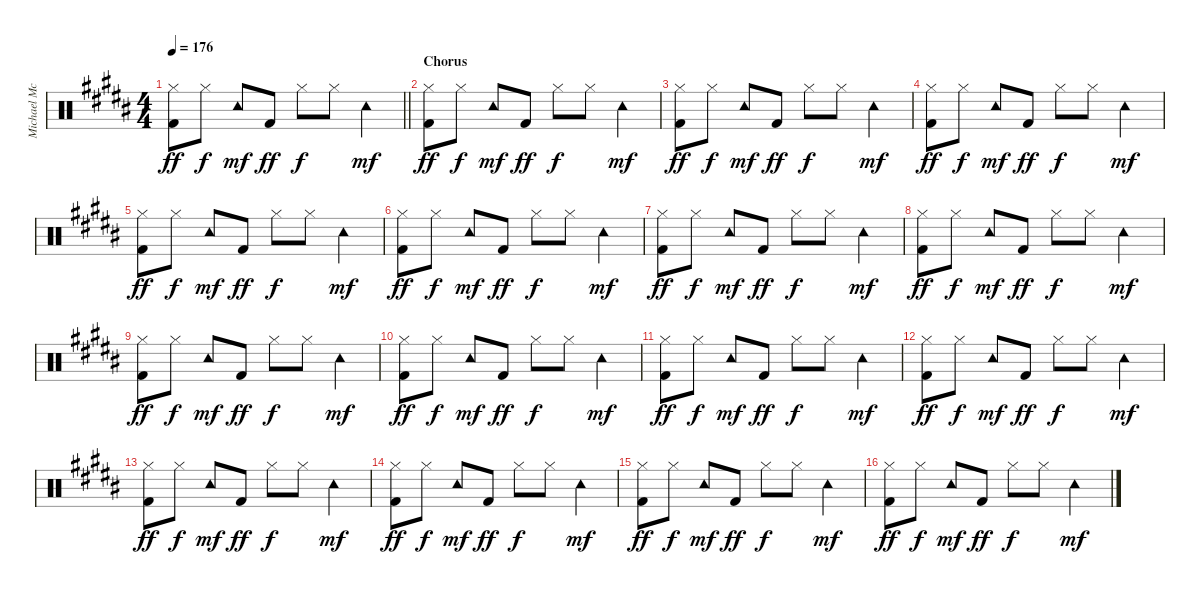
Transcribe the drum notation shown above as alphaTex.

\track ("Michael McDermott - Drums" "Michael Mc") {instrument percussion}
\staff {score}
\articulation defaults
\ts (4 4)
\tempo 176
\clef neutral
\barLineRight lightlight
\ks b
("Kick (hit) 2" "Hi-Hat (closed)").8{dy ff} "Hi-Hat (closed)".8{dy f} "Tambourine (hit)".8{dy mf} "Kick (hit) 2".8{dy ff} "Hi-Hat (closed)".8{dy f} "Hi-Hat (closed)".8 "Tambourine (hit)".4{dy mf} |
\section ("" "Chorus")
("Kick (hit) 2" "Hi-Hat (closed)").8{dy ff} "Hi-Hat (closed)".8{dy f} "Tambourine (hit)".8{dy mf} "Kick (hit) 2".8{dy ff} "Hi-Hat (closed)".8{dy f} "Hi-Hat (closed)".8 "Tambourine (hit)".4{dy mf} |
("Kick (hit) 2" "Hi-Hat (closed)").8{dy ff} "Hi-Hat (closed)".8{dy f} "Tambourine (hit)".8{dy mf} "Kick (hit) 2".8{dy ff} "Hi-Hat (closed)".8{dy f} "Hi-Hat (closed)".8 "Tambourine (hit)".4{dy mf} |
("Kick (hit) 2" "Hi-Hat (closed)").8{dy ff} "Hi-Hat (closed)".8{dy f} "Tambourine (hit)".8{dy mf} "Kick (hit) 2".8{dy ff} "Hi-Hat (closed)".8{dy f} "Hi-Hat (closed)".8 "Tambourine (hit)".4{dy mf} |
("Kick (hit) 2" "Hi-Hat (closed)").8{dy ff} "Hi-Hat (closed)".8{dy f} "Tambourine (hit)".8{dy mf} "Kick (hit) 2".8{dy ff} "Hi-Hat (closed)".8{dy f} "Hi-Hat (closed)".8 "Tambourine (hit)".4{dy mf} |
("Kick (hit) 2" "Hi-Hat (closed)").8{dy ff} "Hi-Hat (closed)".8{dy f} "Tambourine (hit)".8{dy mf} "Kick (hit) 2".8{dy ff} "Hi-Hat (closed)".8{dy f} "Hi-Hat (closed)".8 "Tambourine (hit)".4{dy mf} |
("Kick (hit) 2" "Hi-Hat (closed)").8{dy ff} "Hi-Hat (closed)".8{dy f} "Tambourine (hit)".8{dy mf} "Kick (hit) 2".8{dy ff} "Hi-Hat (closed)".8{dy f} "Hi-Hat (closed)".8 "Tambourine (hit)".4{dy mf} |
("Kick (hit) 2" "Hi-Hat (closed)").8{dy ff} "Hi-Hat (closed)".8{dy f} "Tambourine (hit)".8{dy mf} "Kick (hit) 2".8{dy ff} "Hi-Hat (closed)".8{dy f} "Hi-Hat (closed)".8 "Tambourine (hit)".4{dy mf} |
("Kick (hit) 2" "Hi-Hat (closed)").8{dy ff} "Hi-Hat (closed)".8{dy f} "Tambourine (hit)".8{dy mf} "Kick (hit) 2".8{dy ff} "Hi-Hat (closed)".8{dy f} "Hi-Hat (closed)".8 "Tambourine (hit)".4{dy mf} |
("Kick (hit) 2" "Hi-Hat (closed)").8{dy ff} "Hi-Hat (closed)".8{dy f} "Tambourine (hit)".8{dy mf} "Kick (hit) 2".8{dy ff} "Hi-Hat (closed)".8{dy f} "Hi-Hat (closed)".8 "Tambourine (hit)".4{dy mf} |
("Kick (hit) 2" "Hi-Hat (closed)").8{dy ff} "Hi-Hat (closed)".8{dy f} "Tambourine (hit)".8{dy mf} "Kick (hit) 2".8{dy ff} "Hi-Hat (closed)".8{dy f} "Hi-Hat (closed)".8 "Tambourine (hit)".4{dy mf} |
("Kick (hit) 2" "Hi-Hat (closed)").8{dy ff} "Hi-Hat (closed)".8{dy f} "Tambourine (hit)".8{dy mf} "Kick (hit) 2".8{dy ff} "Hi-Hat (closed)".8{dy f} "Hi-Hat (closed)".8 "Tambourine (hit)".4{dy mf} |
("Kick (hit) 2" "Hi-Hat (closed)").8{dy ff} "Hi-Hat (closed)".8{dy f} "Tambourine (hit)".8{dy mf} "Kick (hit) 2".8{dy ff} "Hi-Hat (closed)".8{dy f} "Hi-Hat (closed)".8 "Tambourine (hit)".4{dy mf} |
("Kick (hit) 2" "Hi-Hat (closed)").8{dy ff} "Hi-Hat (closed)".8{dy f} "Tambourine (hit)".8{dy mf} "Kick (hit) 2".8{dy ff} "Hi-Hat (closed)".8{dy f} "Hi-Hat (closed)".8 "Tambourine (hit)".4{dy mf} |
("Kick (hit) 2" "Hi-Hat (closed)").8{dy ff} "Hi-Hat (closed)".8{dy f} "Tambourine (hit)".8{dy mf} "Kick (hit) 2".8{dy ff} "Hi-Hat (closed)".8{dy f} "Hi-Hat (closed)".8 "Tambourine (hit)".4{dy mf} |
("Kick (hit) 2" "Hi-Hat (closed)").8{dy ff} "Hi-Hat (closed)".8{dy f} "Tambourine (hit)".8{dy mf} "Kick (hit) 2".8{dy ff} "Hi-Hat (closed)".8{dy f} "Hi-Hat (closed)".8 "Tambourine (hit)".4{dy mf}
